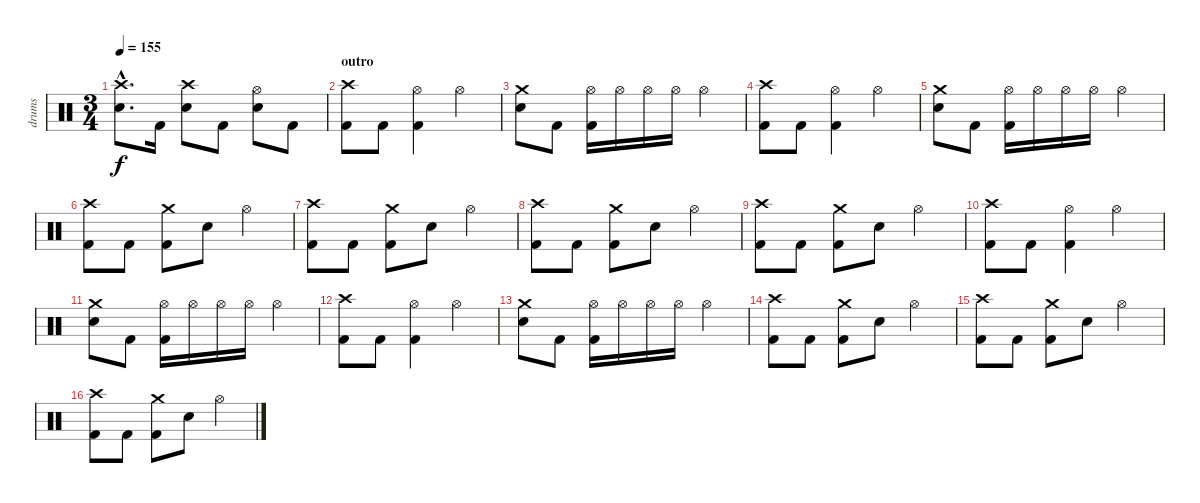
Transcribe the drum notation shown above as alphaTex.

\track ("drums" "drums") {instrument percussion}
\staff {score}
\articulation defaults
\ts (3 4)
\tempo 155
\clef neutral
\ks c
("Crash high (hit)"{hac} "Electric Snare (hit)"{hac}).8{d dy f} "Kick (hit) 2".16 ("Crash high (hit)" "Electric Snare (hit)").8 "Kick (hit) 2".8 ("Hi-Hat (open)" "Electric Snare (hit)").8 "Kick (hit) 2".8 |
\section ("" "outro")
("Crash high (hit)" "Kick (hit) 2").8 "Kick (hit) 2".8 ("Hi-Hat (open)" "Kick (hit) 2").4 "Hi-Hat (open)".4 |
("Crash medium (hit)" "Electric Snare (hit)").8 "Kick (hit) 2".8 ("Hi-Hat (open)" "Kick (hit) 2").16 "Hi-Hat (open)".16 "Hi-Hat (open)".16 "Hi-Hat (open)".16 "Hi-Hat (open)".4 |
("Crash high (hit)" "Kick (hit) 2").8 "Kick (hit) 2".8 ("Hi-Hat (open)" "Kick (hit) 2").4 "Hi-Hat (open)".4 |
("Crash medium (hit)" "Electric Snare (hit)").8 "Kick (hit) 2".8 ("Hi-Hat (open)" "Kick (hit) 2").16 "Hi-Hat (open)".16 "Hi-Hat (open)".16 "Hi-Hat (open)".16 "Hi-Hat (open)".4 |
("Crash high (hit)" "Kick (hit) 2").8 "Kick (hit) 2".8 ("Crash medium (hit)" "Kick (hit) 2").8 "Electric Snare (hit)".8 "Hi-Hat (open)".4 |
("Crash high (hit)" "Kick (hit) 2").8 "Kick (hit) 2".8 ("Crash medium (hit)" "Kick (hit) 2").8 "Electric Snare (hit)".8 "Hi-Hat (open)".4 |
("Crash high (hit)" "Kick (hit) 2").8 "Kick (hit) 2".8 ("Crash medium (hit)" "Kick (hit) 2").8 "Electric Snare (hit)".8 "Hi-Hat (open)".4 |
("Crash high (hit)" "Kick (hit) 2").8 "Kick (hit) 2".8 ("Crash medium (hit)" "Kick (hit) 2").8 "Electric Snare (hit)".8 "Hi-Hat (open)".4 |
("Crash high (hit)" "Kick (hit) 2").8 "Kick (hit) 2".8 ("Hi-Hat (open)" "Kick (hit) 2").4 "Hi-Hat (open)".4 |
("Crash medium (hit)" "Electric Snare (hit)").8 "Kick (hit) 2".8 ("Hi-Hat (open)" "Kick (hit) 2").16 "Hi-Hat (open)".16 "Hi-Hat (open)".16 "Hi-Hat (open)".16 "Hi-Hat (open)".4 |
("Crash high (hit)" "Kick (hit) 2").8 "Kick (hit) 2".8 ("Hi-Hat (open)" "Kick (hit) 2").4 "Hi-Hat (open)".4 |
("Crash medium (hit)" "Electric Snare (hit)").8 "Kick (hit) 2".8 ("Hi-Hat (open)" "Kick (hit) 2").16 "Hi-Hat (open)".16 "Hi-Hat (open)".16 "Hi-Hat (open)".16 "Hi-Hat (open)".4 |
("Crash high (hit)" "Kick (hit) 2").8 "Kick (hit) 2".8 ("Crash medium (hit)" "Kick (hit) 2").8 "Electric Snare (hit)".8 "Hi-Hat (open)".4 |
("Crash high (hit)" "Kick (hit) 2").8 "Kick (hit) 2".8 ("Crash medium (hit)" "Kick (hit) 2").8 "Electric Snare (hit)".8 "Hi-Hat (open)".4 |
("Crash high (hit)" "Kick (hit) 2").8 "Kick (hit) 2".8 ("Crash medium (hit)" "Kick (hit) 2").8 "Electric Snare (hit)".8 "Hi-Hat (open)".4
